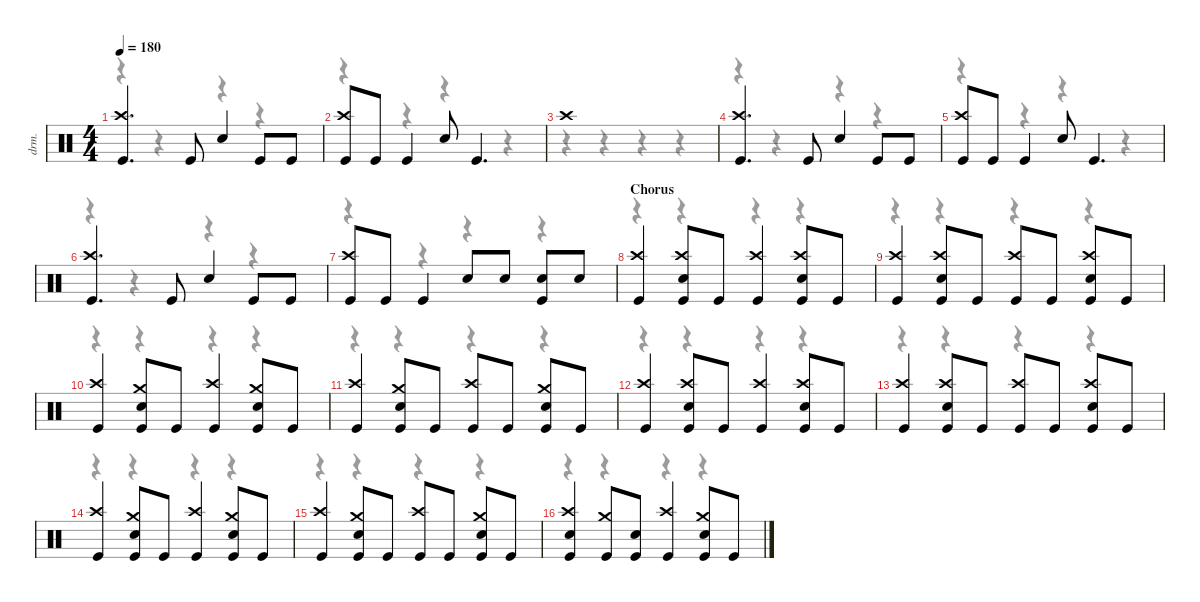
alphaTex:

\defaultSystemsLayout 4
\hideDynamics
\bracketExtendMode nobrackets
\track ("Drums" "drm.") {instrument percussion}
\staff {score}
\articulation defaults
\voice
\ts (4 4)
\tempo 180
\clef neutral
\ks c
("Crash high (hit)" "Kick (hit)").4{d dy f} "Kick (hit)".8 "Snare (hit) 2".4 "Kick (hit)".8 "Kick (hit)".8 |
("Crash high (hit)" "Kick (hit)").8 "Kick (hit)".8 "Kick (hit)".4 "Snare (hit) 2".8 "Kick (hit)".4{d} |
"Crash high (hit)".1 |
("Crash high (hit)" "Kick (hit)").4{d} "Kick (hit)".8 "Snare (hit) 2".4 "Kick (hit)".8 "Kick (hit)".8 |
("Crash high (hit)" "Kick (hit)").8 "Kick (hit)".8 "Kick (hit)".4 "Snare (hit) 2".8 "Kick (hit)".4{d} |
("Crash high (hit)" "Kick (hit)").4{d} "Kick (hit)".8 "Snare (hit) 2".4 "Kick (hit)".8 "Kick (hit)".8 |
("Crash high (hit)" "Kick (hit)").8 "Kick (hit)".8 "Kick (hit)".4 "Snare (hit) 2".8 "Snare (hit) 2".8 ("Snare (hit) 2" "Kick (hit)").8 "Snare (hit) 2".8 |
\section ("" "Chorus")
("Crash high (hit)" "Kick (hit)").4 ("Crash high (hit)" "Snare (hit) 2" "Kick (hit)").8 "Kick (hit)".8 ("Crash high (hit)" "Kick (hit)").4 ("Crash high (hit)" "Snare (hit) 2" "Kick (hit)").8 "Kick (hit)".8 |
("Crash high (hit)" "Kick (hit)").4 ("Crash high (hit)" "Snare (hit) 2" "Kick (hit)").8 "Kick (hit)".8 ("Crash high (hit)" "Kick (hit)").8 "Kick (hit)".8 ("Crash high (hit)" "Snare (hit) 2" "Kick (hit)").8 "Kick (hit)".8 |
("Crash high (hit)" "Kick (hit)").4 ("Crash medium (hit)" "Snare (hit) 2" "Kick (hit)").8 "Kick (hit)".8 ("Crash high (hit)" "Kick (hit)").4 ("Crash medium (hit)" "Snare (hit) 2" "Kick (hit)").8 "Kick (hit)".8 |
("Crash high (hit)" "Kick (hit)").4 ("Crash medium (hit)" "Snare (hit) 2" "Kick (hit)").8 "Kick (hit)".8 ("Crash high (hit)" "Kick (hit)").8 "Kick (hit)".8 ("Crash medium (hit)" "Snare (hit) 2" "Kick (hit)").8 "Kick (hit)".8 |
("Crash high (hit)" "Kick (hit)").4 ("Crash high (hit)" "Snare (hit) 2" "Kick (hit)").8 "Kick (hit)".8 ("Crash high (hit)" "Kick (hit)").4 ("Crash high (hit)" "Snare (hit) 2" "Kick (hit)").8 "Kick (hit)".8 |
("Crash high (hit)" "Kick (hit)").4 ("Crash high (hit)" "Snare (hit) 2" "Kick (hit)").8 "Kick (hit)".8 ("Crash high (hit)" "Kick (hit)").8 "Kick (hit)".8 ("Crash high (hit)" "Snare (hit) 2" "Kick (hit)").8 "Kick (hit)".8 |
("Crash high (hit)" "Kick (hit)").4 ("Crash medium (hit)" "Snare (hit) 2" "Kick (hit)").8 "Kick (hit)".8 ("Crash high (hit)" "Kick (hit)").4 ("Crash medium (hit)" "Snare (hit) 2" "Kick (hit)").8 "Kick (hit)".8 |
("Crash high (hit)" "Kick (hit)").4 ("Crash medium (hit)" "Snare (hit) 2" "Kick (hit)").8 "Kick (hit)".8 ("Crash high (hit)" "Kick (hit)").8 "Kick (hit)".8 ("Crash medium (hit)" "Snare (hit) 2" "Kick (hit)").8 "Kick (hit)".8 |
("Crash high (hit)" "Snare (hit) 2" "Kick (hit)").4 ("Crash medium (hit)" "Kick (hit)").8 ("Snare (hit) 2" "Kick (hit)").8 ("Crash high (hit)" "Kick (hit)").4 ("Crash medium (hit)" "Snare (hit) 2" "Kick (hit)").8 "Kick (hit)".8
\voice
\clef neutral
\ottava regular
\simile none
\ks c
r.4{dy mf} r.4 r.4 r.4 |
r.4 r.4 r.4 r.4 |
r.4 r.4 r.4 r.4 |
r.4 r.4 r.4 r.4 |
r.4 r.4 r.4 r.4 |
r.4 r.4 r.4 r.4 |
r.4 r.4 r.4 r.4 |
r.4 r.4 r.4 r.4 |
r.4 r.4 r.4 r.4 |
r.4 r.4 r.4 r.4 |
r.4 r.4 r.4 r.4 |
r.4 r.4 r.4 r.4 |
r.4 r.4 r.4 r.4 |
r.4 r.4 r.4 r.4 |
r.4 r.4 r.4 r.4 |
r.4 r.4 r.4 r.4
